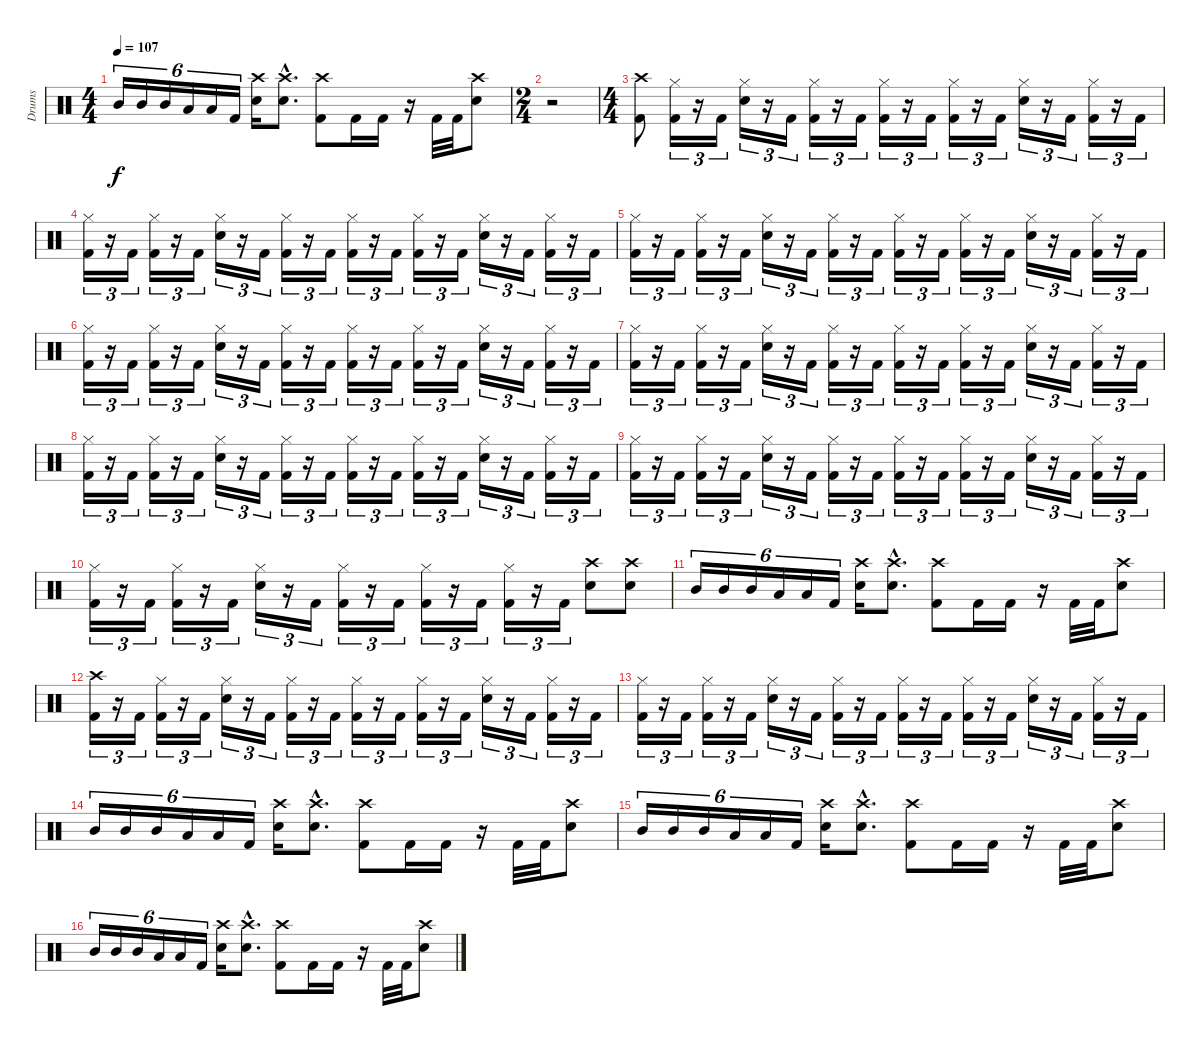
\track ("Drums" "Drums") {instrument percussion}
\staff {score}
\articulation defaults
\ts (4 4)
\tempo 107
\clef neutral
\ks c "Mid Tom (hit)".16{tu (6 4) dy f} "Mid Tom (hit)".16{tu (6 4)} "Mid Tom (hit)".16{tu (6 4)} "Low Tom (hit)".16{tu (6 4)} "Low Tom (hit)".16{tu (6 4)} "Kick (hit) 2".16{tu (6 4)}
("Crash high (hit)" "Electric Snare (hit)").16 ("Crash high (hit)"{hac} "Electric Snare (hit)"{hac}).8{d} ("Crash high (hit)" "Kick (hit) 2").8 "Kick (hit) 2".16 "Kick (hit) 2".16 r.16 "Kick (hit) 2".32 "Kick (hit) 2".32 ("Crash high (hit)" "Electric Snare (hit)").8 |
\ts (2 4)
r.2 |
\ts (4 4)
("Crash high (hit)" "Kick (hit) 2").8{balance 8} ("Hi-Hat (closed)" "Kick (hit) 2").16{tu (3 2)} r.16{tu (3 2)} "Kick (hit) 2".16{tu (3 2)} ("Hi-Hat (closed)" "Electric Snare (hit)").16{tu (3 2)} r.16{tu (3 2)} "Kick (hit) 2".16{tu (3 2)} ("Hi-Hat (closed)" "Kick (hit) 2").16{tu (3 2)} r.16{tu (3 2)} "Kick (hit) 2".16{tu (3 2)} ("Hi-Hat (closed)" "Kick (hit) 2").16{tu (3 2)} r.16{tu (3 2)} "Kick (hit) 2".16{tu (3 2)} ("Hi-Hat (closed)" "Kick (hit) 2").16{tu (3 2)} r.16{tu (3 2)} "Kick (hit) 2".16{tu (3 2)} ("Hi-Hat (closed)" "Electric Snare (hit)").16{tu (3 2)} r.16{tu (3 2)} "Kick (hit) 2".16{tu (3 2)} ("Hi-Hat (closed)" "Kick (hit) 2").16{tu (3 2)} r.16{tu (3 2)} "Kick (hit) 2".16{tu (3 2)} |
("Hi-Hat (closed)" "Kick (hit) 2").16{tu (3 2)} r.16{tu (3 2)} "Kick (hit) 2".16{tu (3 2)} ("Hi-Hat (closed)" "Kick (hit) 2").16{tu (3 2)} r.16{tu (3 2)} "Kick (hit) 2".16{tu (3 2)} ("Hi-Hat (closed)" "Electric Snare (hit)").16{tu (3 2)} r.16{tu (3 2)} "Kick (hit) 2".16{tu (3 2)} ("Hi-Hat (closed)" "Kick (hit) 2").16{tu (3 2)} r.16{tu (3 2)} "Kick (hit) 2".16{tu (3 2)} ("Hi-Hat (closed)" "Kick (hit) 2").16{tu (3 2)} r.16{tu (3 2)} "Kick (hit) 2".16{tu (3 2)} ("Hi-Hat (closed)" "Kick (hit) 2").16{tu (3 2)} r.16{tu (3 2)} "Kick (hit) 2".16{tu (3 2)} ("Hi-Hat (closed)" "Electric Snare (hit)").16{tu (3 2)} r.16{tu (3 2)} "Kick (hit) 2".16{tu (3 2)} ("Hi-Hat (closed)" "Kick (hit) 2").16{tu (3 2)} r.16{tu (3 2)} "Kick (hit) 2".16{tu (3 2)} |
("Hi-Hat (closed)" "Kick (hit) 2").16{tu (3 2)} r.16{tu (3 2)} "Kick (hit) 2".16{tu (3 2)} ("Hi-Hat (closed)" "Kick (hit) 2").16{tu (3 2)} r.16{tu (3 2)} "Kick (hit) 2".16{tu (3 2)} ("Hi-Hat (closed)" "Electric Snare (hit)").16{tu (3 2)} r.16{tu (3 2)} "Kick (hit) 2".16{tu (3 2)} ("Hi-Hat (closed)" "Kick (hit) 2").16{tu (3 2)} r.16{tu (3 2)} "Kick (hit) 2".16{tu (3 2)} ("Hi-Hat (closed)" "Kick (hit) 2").16{tu (3 2)} r.16{tu (3 2)} "Kick (hit) 2".16{tu (3 2)} ("Hi-Hat (closed)" "Kick (hit) 2").16{tu (3 2)} r.16{tu (3 2)} "Kick (hit) 2".16{tu (3 2)} ("Hi-Hat (closed)" "Electric Snare (hit)").16{tu (3 2)} r.16{tu (3 2)} "Kick (hit) 2".16{tu (3 2)} ("Hi-Hat (closed)" "Kick (hit) 2").16{tu (3 2)} r.16{tu (3 2)} "Kick (hit) 2".16{tu (3 2)} |
("Hi-Hat (closed)" "Kick (hit) 2").16{tu (3 2)} r.16{tu (3 2)} "Kick (hit) 2".16{tu (3 2)} ("Hi-Hat (closed)" "Kick (hit) 2").16{tu (3 2)} r.16{tu (3 2)} "Kick (hit) 2".16{tu (3 2)} ("Hi-Hat (closed)" "Electric Snare (hit)").16{tu (3 2)} r.16{tu (3 2)} "Kick (hit) 2".16{tu (3 2)} ("Hi-Hat (closed)" "Kick (hit) 2").16{tu (3 2)} r.16{tu (3 2)} "Kick (hit) 2".16{tu (3 2)} ("Hi-Hat (closed)" "Kick (hit) 2").16{tu (3 2)} r.16{tu (3 2)} "Kick (hit) 2".16{tu (3 2)} ("Hi-Hat (closed)" "Kick (hit) 2").16{tu (3 2)} r.16{tu (3 2)} "Kick (hit) 2".16{tu (3 2)} ("Hi-Hat (closed)" "Electric Snare (hit)").16{tu (3 2)} r.16{tu (3 2)} "Kick (hit) 2".16{tu (3 2)} ("Hi-Hat (closed)" "Kick (hit) 2").16{tu (3 2)} r.16{tu (3 2)} "Kick (hit) 2".16{tu (3 2)} |
("Hi-Hat (closed)" "Kick (hit) 2").16{tu (3 2)} r.16{tu (3 2)} "Kick (hit) 2".16{tu (3 2)} ("Hi-Hat (closed)" "Kick (hit) 2").16{tu (3 2)} r.16{tu (3 2)} "Kick (hit) 2".16{tu (3 2)} ("Hi-Hat (closed)" "Electric Snare (hit)").16{tu (3 2)} r.16{tu (3 2)} "Kick (hit) 2".16{tu (3 2)} ("Hi-Hat (closed)" "Kick (hit) 2").16{tu (3 2)} r.16{tu (3 2)} "Kick (hit) 2".16{tu (3 2)} ("Hi-Hat (closed)" "Kick (hit) 2").16{tu (3 2)} r.16{tu (3 2)} "Kick (hit) 2".16{tu (3 2)} ("Hi-Hat (closed)" "Kick (hit) 2").16{tu (3 2)} r.16{tu (3 2)} "Kick (hit) 2".16{tu (3 2)} ("Hi-Hat (closed)" "Electric Snare (hit)").16{tu (3 2)} r.16{tu (3 2)} "Kick (hit) 2".16{tu (3 2)} ("Hi-Hat (closed)" "Kick (hit) 2").16{tu (3 2)} r.16{tu (3 2)} "Kick (hit) 2".16{tu (3 2)} |
("Hi-Hat (closed)" "Kick (hit) 2").16{tu (3 2)} r.16{tu (3 2)} "Kick (hit) 2".16{tu (3 2)} ("Hi-Hat (closed)" "Kick (hit) 2").16{tu (3 2)} r.16{tu (3 2)} "Kick (hit) 2".16{tu (3 2)} ("Hi-Hat (closed)" "Electric Snare (hit)").16{tu (3 2)} r.16{tu (3 2)} "Kick (hit) 2".16{tu (3 2)} ("Hi-Hat (closed)" "Kick (hit) 2").16{tu (3 2)} r.16{tu (3 2)} "Kick (hit) 2".16{tu (3 2)} ("Hi-Hat (closed)" "Kick (hit) 2").16{tu (3 2)} r.16{tu (3 2)} "Kick (hit) 2".16{tu (3 2)} ("Hi-Hat (closed)" "Kick (hit) 2").16{tu (3 2)} r.16{tu (3 2)} "Kick (hit) 2".16{tu (3 2)} ("Hi-Hat (closed)" "Electric Snare (hit)").16{tu (3 2)} r.16{tu (3 2)} "Kick (hit) 2".16{tu (3 2)} ("Hi-Hat (closed)" "Kick (hit) 2").16{tu (3 2)} r.16{tu (3 2)} "Kick (hit) 2".16{tu (3 2)} |
("Hi-Hat (closed)" "Kick (hit) 2").16{tu (3 2)} r.16{tu (3 2)} "Kick (hit) 2".16{tu (3 2)} ("Hi-Hat (closed)" "Kick (hit) 2").16{tu (3 2)} r.16{tu (3 2)} "Kick (hit) 2".16{tu (3 2)} ("Hi-Hat (closed)" "Electric Snare (hit)").16{tu (3 2)} r.16{tu (3 2)} "Kick (hit) 2".16{tu (3 2)} ("Hi-Hat (closed)" "Kick (hit) 2").16{tu (3 2)} r.16{tu (3 2)} "Kick (hit) 2".16{tu (3 2)} ("Hi-Hat (closed)" "Kick (hit) 2").16{tu (3 2)} r.16{tu (3 2)} "Kick (hit) 2".16{tu (3 2)} ("Hi-Hat (closed)" "Kick (hit) 2").16{tu (3 2)} r.16{tu (3 2)} "Kick (hit) 2".16{tu (3 2)} ("Hi-Hat (closed)" "Electric Snare (hit)").16{tu (3 2)} r.16{tu (3 2)} "Kick (hit) 2".16{tu (3 2)} ("Hi-Hat (closed)" "Kick (hit) 2").16{tu (3 2)} r.16{tu (3 2)} "Kick (hit) 2".16{tu (3 2)} |
("Hi-Hat (closed)" "Kick (hit) 2").16{tu (3 2)} r.16{tu (3 2)} "Kick (hit) 2".16{tu (3 2)} ("Hi-Hat (closed)" "Kick (hit) 2").16{tu (3 2)} r.16{tu (3 2)} "Kick (hit) 2".16{tu (3 2)} ("Hi-Hat (closed)" "Electric Snare (hit)").16{tu (3 2)} r.16{tu (3 2)} "Kick (hit) 2".16{tu (3 2)} ("Hi-Hat (closed)" "Kick (hit) 2").16{tu (3 2)} r.16{tu (3 2)} "Kick (hit) 2".16{tu (3 2)} ("Hi-Hat (closed)" "Kick (hit) 2").16{tu (3 2)} r.16{tu (3 2)} "Kick (hit) 2".16{tu (3 2)} ("Hi-Hat (closed)" "Kick (hit) 2").16{tu (3 2)} r.16{tu (3 2)} "Kick (hit) 2".16{tu (3 2)} ("Crash high (hit)" "Electric Snare (hit)").8 ("Crash high (hit)" "Electric Snare (hit)").8 |
"Mid Tom (hit)".16{tu (6 4)} "Mid Tom (hit)".16{tu (6 4)} "Mid Tom (hit)".16{tu (6 4)} "Low Tom (hit)".16{tu (6 4)} "Low Tom (hit)".16{tu (6 4)} "Kick (hit) 2".16{tu (6 4)} ("Crash high (hit)" "Electric Snare (hit)").16 ("Crash high (hit)"{hac} "Electric Snare (hit)"{hac}).8{d} ("Crash high (hit)" "Kick (hit) 2").8 "Kick (hit) 2".16 "Kick (hit) 2".16 r.16 "Kick (hit) 2".32 "Kick (hit) 2".32 ("Crash high (hit)" "Electric Snare (hit)").8 |
("Crash high (hit)" "Kick (hit) 2").16{tu (3 2)} r.16{tu (3 2)} "Kick (hit) 2".16{tu (3 2)} ("Hi-Hat (closed)" "Kick (hit) 2").16{tu (3 2)} r.16{tu (3 2)} "Kick (hit) 2".16{tu (3 2)} ("Hi-Hat (closed)" "Electric Snare (hit)").16{tu (3 2)} r.16{tu (3 2)} "Kick (hit) 2".16{tu (3 2)} ("Hi-Hat (closed)" "Kick (hit) 2").16{tu (3 2)} r.16{tu (3 2)} "Kick (hit) 2".16{tu (3 2)} ("Hi-Hat (closed)" "Kick (hit) 2").16{tu (3 2)} r.16{tu (3 2)} "Kick (hit) 2".16{tu (3 2)} ("Hi-Hat (closed)" "Kick (hit) 2").16{tu (3 2)} r.16{tu (3 2)} "Kick (hit) 2".16{tu (3 2)} ("Hi-Hat (closed)" "Electric Snare (hit)").16{tu (3 2)} r.16{tu (3 2)} "Kick (hit) 2".16{tu (3 2)} ("Hi-Hat (closed)" "Kick (hit) 2").16{tu (3 2)} r.16{tu (3 2)} "Kick (hit) 2".16{tu (3 2)} |
("Hi-Hat (closed)" "Kick (hit) 2").16{tu (3 2)} r.16{tu (3 2)} "Kick (hit) 2".16{tu (3 2)} ("Hi-Hat (closed)" "Kick (hit) 2").16{tu (3 2)} r.16{tu (3 2)} "Kick (hit) 2".16{tu (3 2)} ("Hi-Hat (closed)" "Electric Snare (hit)").16{tu (3 2)} r.16{tu (3 2)} "Kick (hit) 2".16{tu (3 2)} ("Hi-Hat (closed)" "Kick (hit) 2").16{tu (3 2)} r.16{tu (3 2)} "Kick (hit) 2".16{tu (3 2)} ("Hi-Hat (closed)" "Kick (hit) 2").16{tu (3 2)} r.16{tu (3 2)} "Kick (hit) 2".16{tu (3 2)} ("Hi-Hat (closed)" "Kick (hit) 2").16{tu (3 2)} r.16{tu (3 2)} "Kick (hit) 2".16{tu (3 2)} ("Hi-Hat (closed)" "Electric Snare (hit)").16{tu (3 2)} r.16{tu (3 2)} "Kick (hit) 2".16{tu (3 2)} ("Hi-Hat (closed)" "Kick (hit) 2").16{tu (3 2)} r.16{tu (3 2)} "Kick (hit) 2".16{tu (3 2)} |
"Mid Tom (hit)".16{tu (6 4)} "Mid Tom (hit)".16{tu (6 4)} "Mid Tom (hit)".16{tu (6 4)} "Low Tom (hit)".16{tu (6 4)} "Low Tom (hit)".16{tu (6 4)} "Kick (hit) 2".16{tu (6 4)} ("Crash high (hit)" "Electric Snare (hit)").16 ("Crash high (hit)"{hac} "Electric Snare (hit)"{hac}).8{d} ("Crash high (hit)" "Kick (hit) 2").8 "Kick (hit) 2".16 "Kick (hit) 2".16 r.16 "Kick (hit) 2".32 "Kick (hit) 2".32 ("Crash high (hit)" "Electric Snare (hit)").8 |
"Mid Tom (hit)".16{tu (6 4)} "Mid Tom (hit)".16{tu (6 4)} "Mid Tom (hit)".16{tu (6 4)} "Low Tom (hit)".16{tu (6 4)} "Low Tom (hit)".16{tu (6 4)} "Kick (hit) 2".16{tu (6 4)} ("Crash high (hit)" "Electric Snare (hit)").16 ("Crash high (hit)"{hac} "Electric Snare (hit)"{hac}).8{d} ("Crash high (hit)" "Kick (hit) 2").8 "Kick (hit) 2".16 "Kick (hit) 2".16 r.16 "Kick (hit) 2".32 "Kick (hit) 2".32 ("Crash high (hit)" "Electric Snare (hit)").8 |
"Mid Tom (hit)".16{tu (6 4)} "Mid Tom (hit)".16{tu (6 4)} "Mid Tom (hit)".16{tu (6 4)} "Low Tom (hit)".16{tu (6 4)} "Low Tom (hit)".16{tu (6 4)} "Kick (hit) 2".16{tu (6 4)} ("Crash high (hit)" "Electric Snare (hit)").16 ("Crash high (hit)"{hac} "Electric Snare (hit)"{hac}).8{d} ("Crash high (hit)" "Kick (hit) 2").8 "Kick (hit) 2".16 "Kick (hit) 2".16 r.16 "Kick (hit) 2".32 "Kick (hit) 2".32 ("Crash high (hit)" "Electric Snare (hit)").8
